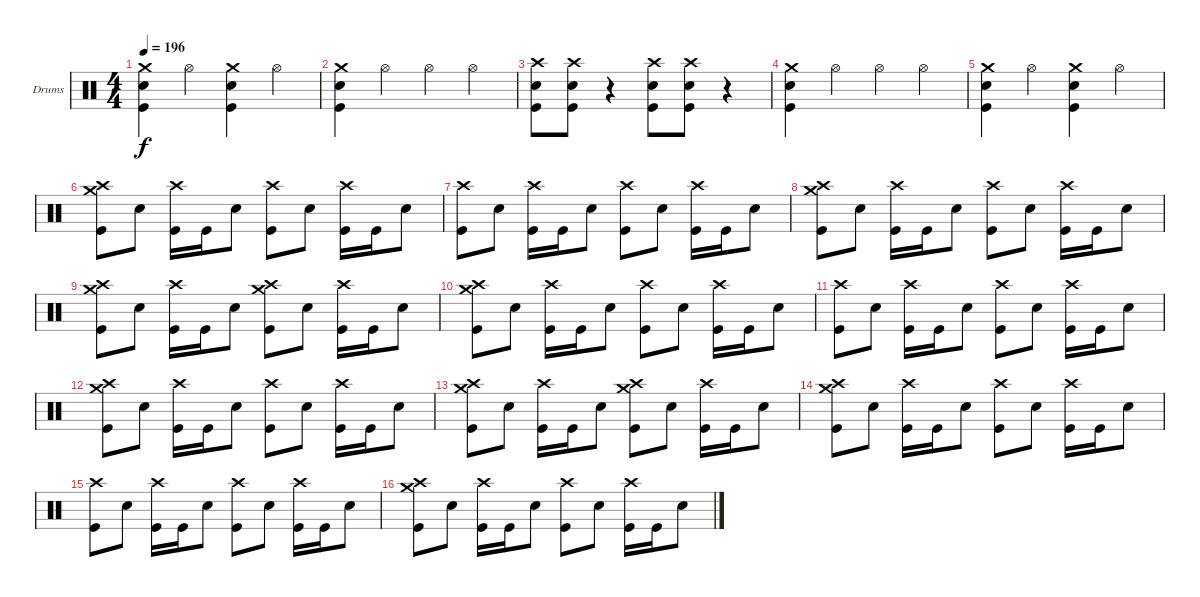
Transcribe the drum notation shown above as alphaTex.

\defaultSystemsLayout 4
\bracketExtendMode groupsimilarinstruments
\firstSystemTrackNameOrientation horizontal
\otherSystemsTrackNameOrientation horizontal
\track ("Lars Ulrich (Drum)" "Drums") {instrument percussion}
\staff {score}
\articulation defaults
\ts (4 4)
\tempo 196
\clef neutral
\scale
0.333333
\ks c
("Crash medium (hit)" "Snare (hit) 2" "Kick (hit)").4{dy f} "Hi-Hat (open)".4 ("Crash medium (hit)" "Snare (hit) 2" "Kick (hit)").4 "Hi-Hat (open)".4 |
\scale
0.333333 ("Crash medium (hit)" "Snare (hit) 2" "Kick (hit)").4 "Hi-Hat (open)".4 "Hi-Hat (open)".4 "Hi-Hat (open)".4 |
\scale
0.333333 ("Crash high (hit)" "Snare (hit) 2" "Kick (hit)").8 ("Crash high (hit)" "Snare (hit) 2" "Kick (hit)").8 r.4 ("Crash high (hit)" "Snare (hit) 2" "Kick (hit)").8 ("Crash high (hit)" "Snare (hit) 2" "Kick (hit)").8 r.4 |
\scale
0.333333 ("Crash medium (hit)" "Snare (hit) 2" "Kick (hit)").4 "Hi-Hat (open)".4 "Hi-Hat (open)".4 "Hi-Hat (open)".4 |
\scale
0.333333 ("Crash medium (hit)" "Snare (hit) 2" "Kick (hit)").4 "Hi-Hat (open)".4 ("Crash medium (hit)" "Snare (hit) 2" "Kick (hit)").4 "Hi-Hat (open)".4 |
\scale
0.333333 ("Crash high (hit)" "Crash medium (hit)" "Kick (hit)").8 "Snare (hit) 2".8 ("Crash high (hit)" "Kick (hit)").16 "Kick (hit)".16 "Snare (hit) 2".8 ("Crash high (hit)" "Kick (hit)").8 "Snare (hit) 2".8 ("Crash high (hit)" "Kick (hit)").16 "Kick (hit)".16 "Snare (hit) 2".8 |
\scale
0.333333 ("Crash high (hit)" "Kick (hit)").8 "Snare (hit) 2".8 ("Crash high (hit)" "Kick (hit)").16 "Kick (hit)".16 "Snare (hit) 2".8 ("Crash high (hit)" "Kick (hit)").8 "Snare (hit) 2".8 ("Crash high (hit)" "Kick (hit)").16 "Kick (hit)".16 "Snare (hit) 2".8 |
\scale
0.333333 ("Crash high (hit)" "Crash medium (hit)" "Kick (hit)").8 "Snare (hit) 2".8 ("Crash high (hit)" "Kick (hit)").16 "Kick (hit)".16 "Snare (hit) 2".8 ("Crash high (hit)" "Kick (hit)").8 "Snare (hit) 2".8 ("Crash high (hit)" "Kick (hit)").16 "Kick (hit)".16 "Snare (hit) 2".8 |
\scale
0.333333 ("Crash high (hit)" "Crash medium (hit)" "Kick (hit)").8 "Snare (hit) 2".8 ("Crash high (hit)" "Kick (hit)").16 "Kick (hit)".16 "Snare (hit) 2".8 ("Crash high (hit)" "Crash medium (hit)" "Kick (hit)").8 "Snare (hit) 2".8 ("Crash high (hit)" "Kick (hit)").16 "Kick (hit)".16 "Snare (hit) 2".8 |
\scale
0.333333 ("Crash high (hit)" "Crash medium (hit)" "Kick (hit)").8 "Snare (hit) 2".8 ("Crash high (hit)" "Kick (hit)").16 "Kick (hit)".16 "Snare (hit) 2".8 ("Crash high (hit)" "Kick (hit)").8 "Snare (hit) 2".8 ("Crash high (hit)" "Kick (hit)").16 "Kick (hit)".16 "Snare (hit) 2".8 |
\scale
0.333333 ("Crash high (hit)" "Kick (hit)").8 "Snare (hit) 2".8 ("Crash high (hit)" "Kick (hit)").16 "Kick (hit)".16 "Snare (hit) 2".8 ("Crash high (hit)" "Kick (hit)").8 "Snare (hit) 2".8 ("Crash high (hit)" "Kick (hit)").16 "Kick (hit)".16 "Snare (hit) 2".8 |
\scale
0.333333 ("Crash high (hit)" "Crash medium (hit)" "Kick (hit)").8 "Snare (hit) 2".8 ("Crash high (hit)" "Kick (hit)").16 "Kick (hit)".16 "Snare (hit) 2".8 ("Crash high (hit)" "Kick (hit)").8 "Snare (hit) 2".8 ("Crash high (hit)" "Kick (hit)").16 "Kick (hit)".16 "Snare (hit) 2".8 |
\scale
0.333333 ("Crash high (hit)" "Crash medium (hit)" "Kick (hit)").8 "Snare (hit) 2".8 ("Crash high (hit)" "Kick (hit)").16 "Kick (hit)".16 "Snare (hit) 2".8 ("Crash high (hit)" "Crash medium (hit)" "Kick (hit)").8 "Snare (hit) 2".8 ("Crash high (hit)" "Kick (hit)").16 "Kick (hit)".16 "Snare (hit) 2".8 |
\scale
0.333333 ("Crash high (hit)" "Crash medium (hit)" "Kick (hit)").8 "Snare (hit) 2".8 ("Crash high (hit)" "Kick (hit)").16 "Kick (hit)".16 "Snare (hit) 2".8 ("Crash high (hit)" "Kick (hit)").8 "Snare (hit) 2".8 ("Crash high (hit)" "Kick (hit)").16 "Kick (hit)".16 "Snare (hit) 2".8 |
\scale
0.333333 ("Crash high (hit)" "Kick (hit)").8 "Snare (hit) 2".8 ("Crash high (hit)" "Kick (hit)").16 "Kick (hit)".16 "Snare (hit) 2".8 ("Crash high (hit)" "Kick (hit)").8 "Snare (hit) 2".8 ("Crash high (hit)" "Kick (hit)").16 "Kick (hit)".16 "Snare (hit) 2".8 |
\scale
0.333333 ("Crash high (hit)" "Crash medium (hit)" "Kick (hit)").8 "Snare (hit) 2".8 ("Crash high (hit)" "Kick (hit)").16 "Kick (hit)".16 "Snare (hit) 2".8 ("Crash high (hit)" "Kick (hit)").8 "Snare (hit) 2".8 ("Crash high (hit)" "Kick (hit)").16 "Kick (hit)".16 "Snare (hit) 2".8
